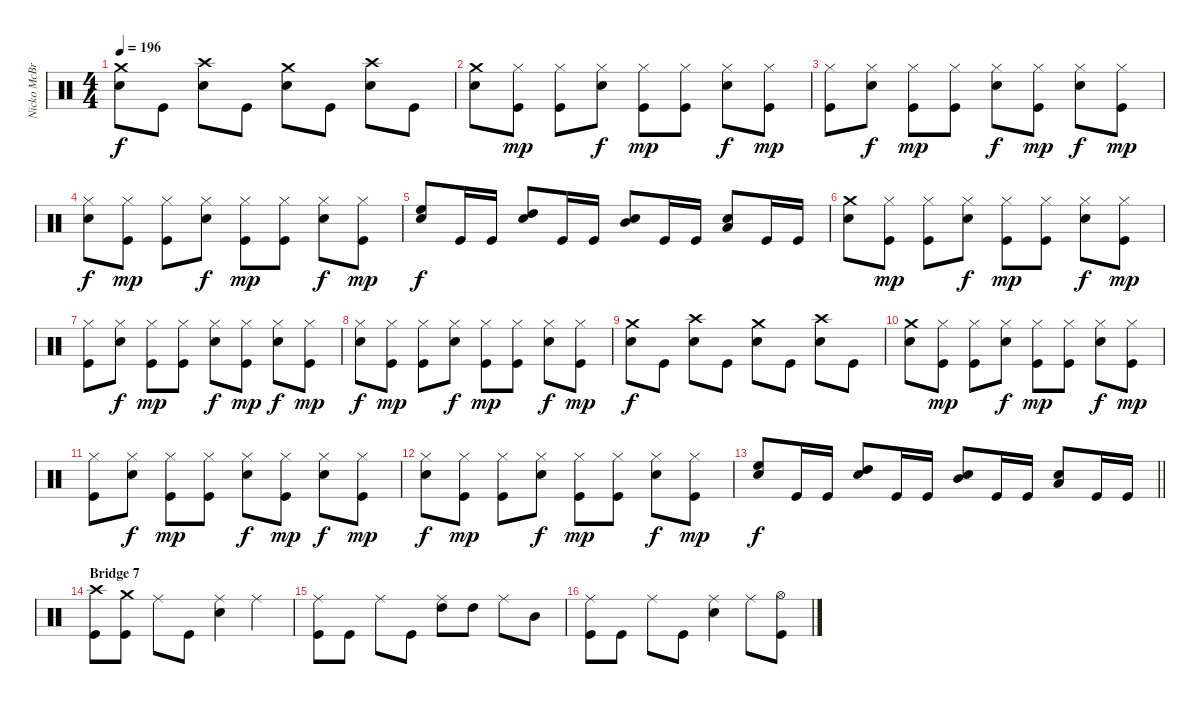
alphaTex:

\track ("Nicko McBrain" "Nicko McBr") {instrument percussion}
\staff {score}
\articulation defaults
\ts (4 4)
\tempo 196
\clef neutral
\ks c
("Crash medium (hit)" "Electric Snare (hit)").8{dy f} "Kick (hit)".8 ("Crash high (hit)" "Electric Snare (hit)").8 "Kick (hit)".8 ("Crash medium (hit)" "Electric Snare (hit)").8 "Kick (hit)".8 ("Crash high (hit)" "Electric Snare (hit)").8 "Kick (hit)".8 |
("Crash medium (hit)" "Electric Snare (hit)").8 ("Hi-Hat (closed)" "Kick (hit)").8{dy mp} ("Hi-Hat (closed)" "Kick (hit)").8 ("Hi-Hat (closed)" "Electric Snare (hit)").8{dy f} ("Hi-Hat (closed)" "Kick (hit)").8{dy mp} ("Hi-Hat (closed)" "Kick (hit)").8 ("Hi-Hat (closed)" "Electric Snare (hit)").8{dy f} ("Hi-Hat (closed)" "Kick (hit)").8{dy mp} |
("Hi-Hat (closed)" "Kick (hit)").8 ("Hi-Hat (closed)" "Electric Snare (hit)").8{dy f} ("Hi-Hat (closed)" "Kick (hit)").8{dy mp} ("Hi-Hat (closed)" "Kick (hit)").8 ("Hi-Hat (closed)" "Electric Snare (hit)").8{dy f} ("Hi-Hat (closed)" "Kick (hit)").8{dy mp} ("Hi-Hat (closed)" "Electric Snare (hit)").8{dy f} ("Hi-Hat (closed)" "Kick (hit)").8{dy mp} |
("Hi-Hat (closed)" "Electric Snare (hit)").8{dy f} ("Hi-Hat (closed)" "Kick (hit)").8{dy mp} ("Hi-Hat (closed)" "Kick (hit)").8 ("Hi-Hat (closed)" "Electric Snare (hit)").8{dy f} ("Hi-Hat (closed)" "Kick (hit)").8{dy mp} ("Hi-Hat (closed)" "Kick (hit)").8 ("Hi-Hat (closed)" "Electric Snare (hit)").8{dy f} ("Hi-Hat (closed)" "Kick (hit)").8{dy mp} |
("High Floor Tom (hit)" "Electric Snare (hit)").8{dy f} "Kick (hit)".16 "Kick (hit)".16 ("High Tom (hit)" "Electric Snare (hit)").8 "Kick (hit)".16 "Kick (hit)".16 ("Electric Snare (hit)" "Mid Tom (hit)").8 "Kick (hit)".16 "Kick (hit)".16 ("Electric Snare (hit)" "Low Tom (hit)").8 "Kick (hit)".16 "Kick (hit)".16 |
("Crash medium (hit)" "Electric Snare (hit)").8 ("Hi-Hat (closed)" "Kick (hit)").8{dy mp} ("Hi-Hat (closed)" "Kick (hit)").8 ("Hi-Hat (closed)" "Electric Snare (hit)").8{dy f} ("Hi-Hat (closed)" "Kick (hit)").8{dy mp} ("Hi-Hat (closed)" "Kick (hit)").8 ("Hi-Hat (closed)" "Electric Snare (hit)").8{dy f} ("Hi-Hat (closed)" "Kick (hit)").8{dy mp} |
("Hi-Hat (closed)" "Kick (hit)").8 ("Hi-Hat (closed)" "Electric Snare (hit)").8{dy f} ("Hi-Hat (closed)" "Kick (hit)").8{dy mp} ("Hi-Hat (closed)" "Kick (hit)").8 ("Hi-Hat (closed)" "Electric Snare (hit)").8{dy f} ("Hi-Hat (closed)" "Kick (hit)").8{dy mp} ("Hi-Hat (closed)" "Electric Snare (hit)").8{dy f} ("Hi-Hat (closed)" "Kick (hit)").8{dy mp} |
("Hi-Hat (closed)" "Electric Snare (hit)").8{dy f} ("Hi-Hat (closed)" "Kick (hit)").8{dy mp} ("Hi-Hat (closed)" "Kick (hit)").8 ("Hi-Hat (closed)" "Electric Snare (hit)").8{dy f} ("Hi-Hat (closed)" "Kick (hit)").8{dy mp} ("Hi-Hat (closed)" "Kick (hit)").8 ("Hi-Hat (closed)" "Electric Snare (hit)").8{dy f} ("Hi-Hat (closed)" "Kick (hit)").8{dy mp} |
("Crash medium (hit)" "Electric Snare (hit)").8{dy f} "Kick (hit)".8 ("Crash high (hit)" "Electric Snare (hit)").8 "Kick (hit)".8 ("Crash medium (hit)" "Electric Snare (hit)").8 "Kick (hit)".8 ("Crash high (hit)" "Electric Snare (hit)").8 "Kick (hit)".8 |
("Crash medium (hit)" "Electric Snare (hit)").8 ("Hi-Hat (closed)" "Kick (hit)").8{dy mp} ("Hi-Hat (closed)" "Kick (hit)").8 ("Hi-Hat (closed)" "Electric Snare (hit)").8{dy f} ("Hi-Hat (closed)" "Kick (hit)").8{dy mp} ("Hi-Hat (closed)" "Kick (hit)").8 ("Hi-Hat (closed)" "Electric Snare (hit)").8{dy f} ("Hi-Hat (closed)" "Kick (hit)").8{dy mp} |
("Hi-Hat (closed)" "Kick (hit)").8 ("Hi-Hat (closed)" "Electric Snare (hit)").8{dy f} ("Hi-Hat (closed)" "Kick (hit)").8{dy mp} ("Hi-Hat (closed)" "Kick (hit)").8 ("Hi-Hat (closed)" "Electric Snare (hit)").8{dy f} ("Hi-Hat (closed)" "Kick (hit)").8{dy mp} ("Hi-Hat (closed)" "Electric Snare (hit)").8{dy f} ("Hi-Hat (closed)" "Kick (hit)").8{dy mp} |
("Hi-Hat (closed)" "Electric Snare (hit)").8{dy f} ("Hi-Hat (closed)" "Kick (hit)").8{dy mp} ("Hi-Hat (closed)" "Kick (hit)").8 ("Hi-Hat (closed)" "Electric Snare (hit)").8{dy f} ("Hi-Hat (closed)" "Kick (hit)").8{dy mp} ("Hi-Hat (closed)" "Kick (hit)").8 ("Hi-Hat (closed)" "Electric Snare (hit)").8{dy f} ("Hi-Hat (closed)" "Kick (hit)").8{dy mp} |
\barLineRight lightlight
("High Floor Tom (hit)" "Electric Snare (hit)").8{dy f} "Kick (hit)".16 "Kick (hit)".16 ("High Tom (hit)" "Electric Snare (hit)").8 "Kick (hit)".16 "Kick (hit)".16 ("Electric Snare (hit)" "Mid Tom (hit)").8 "Kick (hit)".16 "Kick (hit)".16 ("Electric Snare (hit)" "Low Tom (hit)").8 "Kick (hit)".16 "Kick (hit)".16 |
\section ("" "Bridge 7")
("Crash high (hit)" "Kick (hit)").8 ("Crash medium (hit)" "Kick (hit)").8 "Ride (middle)".8 "Kick (hit)".8 ("Ride (middle)" "Electric Snare (hit)").4 "Ride (middle)".4 |
("Ride (middle)" "Kick (hit)").8 "Kick (hit)".8 "Ride (middle)".8 "Kick (hit)".8 ("Ride (middle)" "High Tom (hit)").8 "High Tom (hit)".8 "Ride (middle)".8 "Mid Tom (hit)".8 |
("Ride (middle)" "Kick (hit)").8 "Kick (hit)".8 "Ride (middle)".8 "Kick (hit)".8 ("Ride (middle)" "Electric Snare (hit)").4 "Ride (middle)".8 ("Hi-Hat (open)" "Kick (hit)").8
